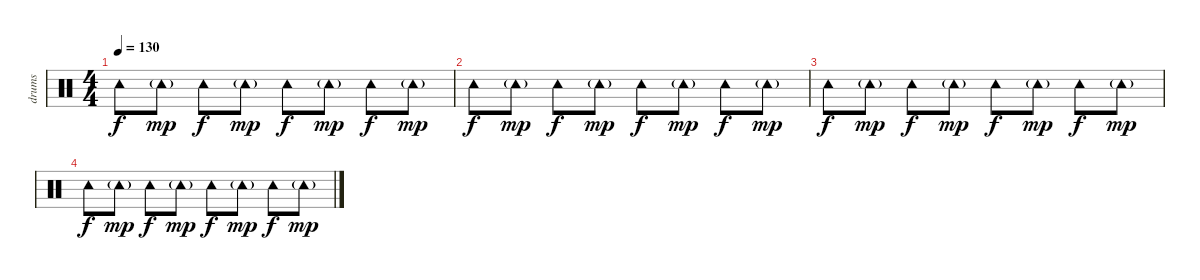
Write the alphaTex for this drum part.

\track ("drums" "drums") {instrument percussion}
\staff {score}
\articulation defaults
\ts (4 4)
\tempo 130
\clef neutral
\ks c "Tambourine (hit)".8{dy f volume 0} "Tambourine (hit)"{g}.8{dy mp} "Tambourine (hit)".8{dy f} "Tambourine (hit)"{g}.8{dy mp} "Tambourine (hit)".8{dy f} "Tambourine (hit)"{g}.8{dy mp} "Tambourine (hit)".8{dy f} "Tambourine (hit)"{g}.8{dy mp}
|
"Tambourine (hit)".8{dy f} "Tambourine (hit)"{g}.8{dy mp} "Tambourine (hit)".8{dy f} "Tambourine (hit)"{g}.8{dy mp} "Tambourine (hit)".8{dy f} "Tambourine (hit)"{g}.8{dy mp} "Tambourine (hit)".8{dy f} "Tambourine (hit)"{g}.8{dy mp} |
"Tambourine (hit)".8{dy f} "Tambourine (hit)"{g}.8{dy mp} "Tambourine (hit)".8{dy f} "Tambourine (hit)"{g}.8{dy mp} "Tambourine (hit)".8{dy f} "Tambourine (hit)"{g}.8{dy mp} "Tambourine (hit)".8{dy f} "Tambourine (hit)"{g}.8{dy mp} |
"Tambourine (hit)".8{dy f} "Tambourine (hit)"{g}.8{dy mp} "Tambourine (hit)".8{dy f} "Tambourine (hit)"{g}.8{dy mp} "Tambourine (hit)".8{dy f} "Tambourine (hit)"{g}.8{dy mp} "Tambourine (hit)".8{dy f} "Tambourine (hit)"{g}.8{dy mp}
